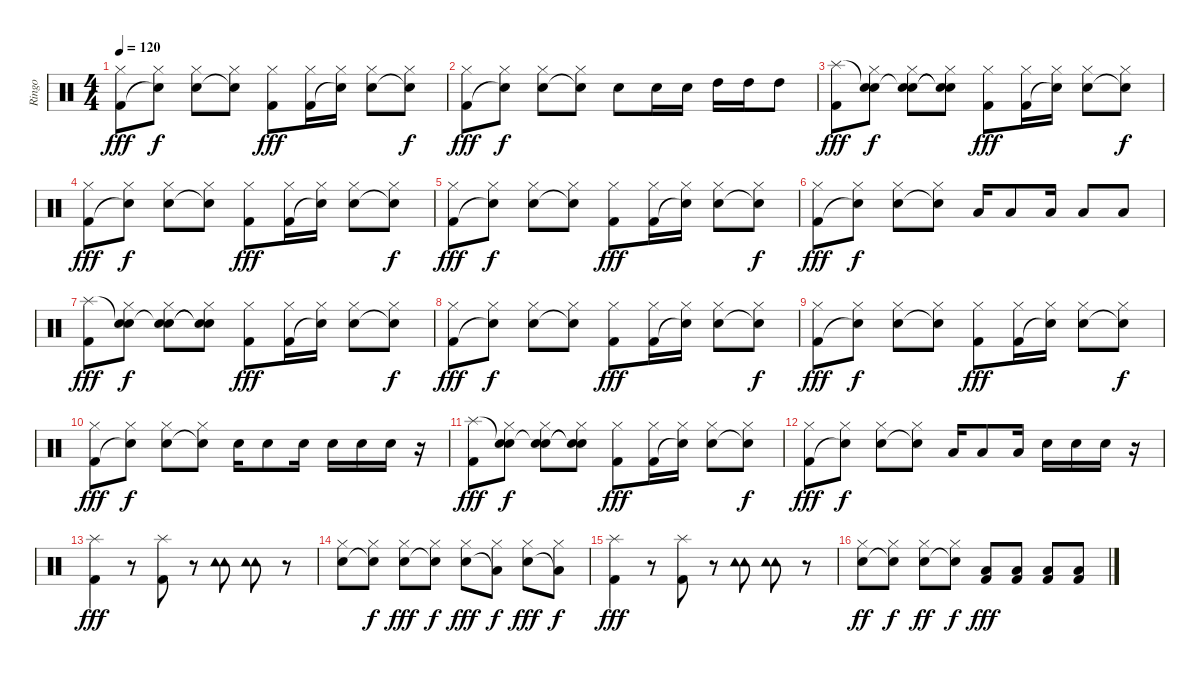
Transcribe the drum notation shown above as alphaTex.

\track ("Ringo" "Ringo") {instrument percussion}
\staff {score}
\articulation defaults
\ts (4 4)
\tempo 120
\clef neutral
\ks c
("Hi-Hat (closed)" "Kick (hit) 2").8{dy fff} ("Hi-Hat (closed)" "Snare (hit)"{t}).8{dy f} ("Hi-Hat (closed)" "Snare (hit) 2").8 ("Hi-Hat (closed)" "Snare (hit)"{t}).8 ("Hi-Hat (closed)" "Kick (hit) 2").8{dy fff} ("Hi-Hat (closed)" "Kick (hit) 2").16 ("Hi-Hat (closed)" "Snare (hit)"{t}).16 ("Hi-Hat (closed)" "Snare (hit) 2").8 ("Hi-Hat (closed)" "Snare (hit)"{t}).8{dy f} |
("Hi-Hat (closed)" "Kick (hit) 2").8{dy fff} ("Hi-Hat (closed)" "Snare (hit)"{t}).8{dy f} ("Hi-Hat (closed)" "Snare (hit) 2").8 ("Hi-Hat (closed)" "Snare (hit)"{t}).8 "Snare (hit) 2".8 "Snare (hit) 2".16 "Snare (hit) 2".16 "High Tom (hit)".16 "High Tom (hit)".16 "High Tom (hit)".8 |
("Splash (hit)" "Kick (hit) 2").8{dy fff} ("Snare (hit)"{t} "Hi-Hat (closed)" "Snare (hit)").8{dy f} ("Snare (hit)"{t} "Hi-Hat (closed)" "Snare (hit) 2").8 ("Snare (hit)"{t} "Hi-Hat (closed)" "Snare (hit)"{t}).8 ("Hi-Hat (closed)" "Kick (hit) 2").8{dy fff} ("Hi-Hat (closed)" "Kick (hit) 2").16 ("Hi-Hat (closed)" "Snare (hit)"{t}).16 ("Hi-Hat (closed)" "Snare (hit) 2").8 ("Hi-Hat (closed)" "Snare (hit)"{t}).8{dy f} |
("Hi-Hat (closed)" "Kick (hit) 2").8{dy fff} ("Hi-Hat (closed)" "Snare (hit)"{t}).8{dy f} ("Hi-Hat (closed)" "Snare (hit) 2").8 ("Hi-Hat (closed)" "Snare (hit)"{t}).8 ("Hi-Hat (closed)" "Kick (hit) 2").8{dy fff} ("Hi-Hat (closed)" "Kick (hit) 2").16 ("Hi-Hat (closed)" "Snare (hit)"{t}).16 ("Hi-Hat (closed)" "Snare (hit) 2").8 ("Hi-Hat (closed)" "Snare (hit)"{t}).8{dy f} |
("Hi-Hat (closed)" "Kick (hit) 2").8{dy fff} ("Hi-Hat (closed)" "Snare (hit)"{t}).8{dy f} ("Hi-Hat (closed)" "Snare (hit) 2").8 ("Hi-Hat (closed)" "Snare (hit)"{t}).8 ("Hi-Hat (closed)" "Kick (hit) 2").8{dy fff} ("Hi-Hat (closed)" "Kick (hit) 2").16 ("Hi-Hat (closed)" "Snare (hit)"{t}).16 ("Hi-Hat (closed)" "Snare (hit) 2").8 ("Hi-Hat (closed)" "Snare (hit)"{t}).8{dy f} |
("Hi-Hat (closed)" "Kick (hit) 2").8{dy fff} ("Hi-Hat (closed)" "Snare (hit)"{t}).8{dy f} ("Hi-Hat (closed)" "Snare (hit) 2").8 ("Hi-Hat (closed)" "Snare (hit)"{t}).8 "Low Floor Tom (hit)".16 "Low Floor Tom (hit)".8 "Low Floor Tom (hit)".16 "Low Floor Tom (hit)".8 "Low Floor Tom (hit)".8 |
("Splash (hit)" "Kick (hit) 2").8{dy fff} ("Snare (hit)"{t} "Hi-Hat (closed)" "Snare (hit)").8{dy f} ("Snare (hit)"{t} "Hi-Hat (closed)" "Snare (hit) 2").8 ("Snare (hit)"{t} "Hi-Hat (closed)" "Snare (hit)"{t}).8 ("Hi-Hat (closed)" "Kick (hit) 2").8{dy fff} ("Hi-Hat (closed)" "Kick (hit) 2").16 ("Hi-Hat (closed)" "Snare (hit)"{t}).16 ("Hi-Hat (closed)" "Snare (hit) 2").8 ("Hi-Hat (closed)" "Snare (hit)"{t}).8{dy f} |
("Hi-Hat (closed)" "Kick (hit) 2").8{dy fff} ("Hi-Hat (closed)" "Snare (hit)"{t}).8{dy f} ("Hi-Hat (closed)" "Snare (hit) 2").8 ("Hi-Hat (closed)" "Snare (hit)"{t}).8 ("Hi-Hat (closed)" "Kick (hit) 2").8{dy fff} ("Hi-Hat (closed)" "Kick (hit) 2").16 ("Hi-Hat (closed)" "Snare (hit)"{t}).16 ("Hi-Hat (closed)" "Snare (hit) 2").8 ("Hi-Hat (closed)" "Snare (hit)"{t}).8{dy f} |
("Hi-Hat (closed)" "Kick (hit) 2").8{dy fff} ("Hi-Hat (closed)" "Snare (hit)"{t}).8{dy f} ("Hi-Hat (closed)" "Snare (hit) 2").8 ("Hi-Hat (closed)" "Snare (hit)"{t}).8 ("Hi-Hat (closed)" "Kick (hit) 2").8{dy fff} ("Hi-Hat (closed)" "Kick (hit) 2").16 ("Hi-Hat (closed)" "Snare (hit)"{t}).16 ("Hi-Hat (closed)" "Snare (hit) 2").8 ("Hi-Hat (closed)" "Snare (hit)"{t}).8{dy f} |
("Hi-Hat (closed)" "Kick (hit) 2").8{dy fff} ("Hi-Hat (closed)" "Snare (hit)"{t}).8{dy f} ("Hi-Hat (closed)" "Snare (hit) 2").8 ("Hi-Hat (closed)" "Snare (hit)"{t}).8 "Snare (hit) 2".16 "Snare (hit) 2".8 "Snare (hit) 2".16 "Snare (hit) 2".16 "Snare (hit) 2".16 "Snare (hit) 2".16 r.16 |
("Splash (hit)" "Kick (hit) 2").8{dy fff} ("Snare (hit)"{t} "Hi-Hat (closed)" "Snare (hit)").8{dy f} ("Snare (hit)"{t} "Hi-Hat (closed)" "Snare (hit) 2").8 ("Snare (hit)"{t} "Hi-Hat (closed)" "Snare (hit)"{t}).8 ("Hi-Hat (closed)" "Kick (hit) 2").8{dy fff} ("Hi-Hat (closed)" "Kick (hit) 2").16 ("Hi-Hat (closed)" "Snare (hit)"{t}).16 ("Hi-Hat (closed)" "Snare (hit) 2").8 ("Hi-Hat (closed)" "Snare (hit)"{t}).8{dy f} |
("Hi-Hat (closed)" "Kick (hit) 2").8{dy fff} ("Hi-Hat (closed)" "Snare (hit)"{t}).8{dy f} ("Hi-Hat (closed)" "Snare (hit) 2").8 ("Hi-Hat (closed)" "Snare (hit)"{t}).8 "Low Floor Tom (hit)".16 "Low Floor Tom (hit)".8 "Low Floor Tom (hit)".16 "Snare (hit) 2".16 "Snare (hit) 2".16 "Snare (hit) 2".16 r.16 |
("Splash (hit)" "Kick (hit) 2").4{dy fff} r.8 ("Splash (hit)" "Kick (hit) 2").8 r.8 ("Tambourine (hit)" "Tambourine (hit)").8 ("Tambourine (hit)" "Tambourine (hit)").8 r.8 |
("Hi-Hat (closed)" "Snare (hit) 2").8 ("Hi-Hat (closed)" "Snare (hit)"{t}).8{dy f} ("Hi-Hat (closed)" "Snare (hit) 2").8{dy fff} ("Hi-Hat (closed)" "Snare (hit)"{t}).8{dy f} ("Hi-Hat (closed)" "Snare (hit) 2").8{dy fff} ("Hi-Hat (closed)" "Low Floor Tom (hit)"{t}).8{dy f} ("Hi-Hat (closed)" "Snare (hit) 2").8{dy fff} ("Hi-Hat (closed)" "Low Floor Tom (hit)"{t}).8{dy f} |
("Splash (hit)" "Kick (hit) 2").4{dy fff} r.8 ("Splash (hit)" "Kick (hit) 2").8 r.8 ("Tambourine (hit)" "Tambourine (hit)").8 ("Tambourine (hit)" "Tambourine (hit)").8 r.8 |
("Hi-Hat (closed)" "Snare (hit) 2").8{dy ff} ("Hi-Hat (closed)" "Snare (hit)"{t}).8{dy f} ("Hi-Hat (closed)" "Snare (hit) 2").8{dy ff} ("Hi-Hat (closed)" "Snare (hit)"{t}).8{dy f} ("Low Floor Tom (hit)" "Kick (hit) 2").8{dy fff} ("Low Floor Tom (hit)" "Kick (hit) 2").8 ("Low Floor Tom (hit)" "Kick (hit) 2").8 ("Low Floor Tom (hit)" "Kick (hit) 2").8
